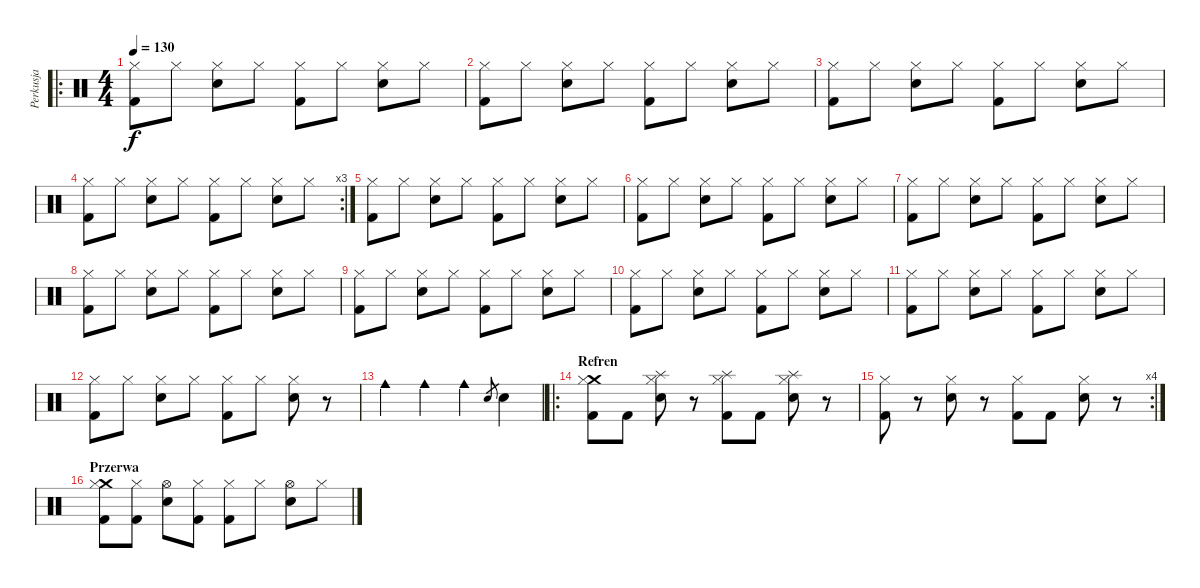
\track ("Perkusja" "Perkusja") {instrument percussion}
\staff {score}
\articulation defaults
\ro
\ts (4 4)
\tempo 130
\clef neutral
\ks c
("Hi-Hat (closed)" "Kick (hit) 2").8{dy f} "Hi-Hat (closed)".8 ("Hi-Hat (closed)" "Electric Snare (hit)").8 "Hi-Hat (closed)".8 ("Hi-Hat (closed)" "Kick (hit) 2").8 "Hi-Hat (closed)".8 ("Hi-Hat (closed)" "Electric Snare (hit)").8 "Hi-Hat (closed)".8 |
("Hi-Hat (closed)" "Kick (hit) 2").8 "Hi-Hat (closed)".8 ("Hi-Hat (closed)" "Electric Snare (hit)").8 "Hi-Hat (closed)".8 ("Hi-Hat (closed)" "Kick (hit) 2").8 "Hi-Hat (closed)".8 ("Hi-Hat (closed)" "Electric Snare (hit)").8 "Hi-Hat (closed)".8 |
("Hi-Hat (closed)" "Kick (hit) 2").8 "Hi-Hat (closed)".8 ("Hi-Hat (closed)" "Electric Snare (hit)").8 "Hi-Hat (closed)".8 ("Hi-Hat (closed)" "Kick (hit) 2").8 "Hi-Hat (closed)".8 ("Hi-Hat (closed)" "Electric Snare (hit)").8 "Hi-Hat (closed)".8 |
\rc 3
("Hi-Hat (closed)" "Kick (hit) 2").8 "Hi-Hat (closed)".8 ("Hi-Hat (closed)" "Electric Snare (hit)").8 "Hi-Hat (closed)".8 ("Hi-Hat (closed)" "Kick (hit) 2").8 "Hi-Hat (closed)".8 ("Hi-Hat (closed)" "Electric Snare (hit)").8 "Hi-Hat (closed)".8 |
("Hi-Hat (closed)" "Kick (hit) 2").8 "Hi-Hat (closed)".8 ("Hi-Hat (closed)" "Electric Snare (hit)").8 "Hi-Hat (closed)".8 ("Hi-Hat (closed)" "Kick (hit) 2").8 "Hi-Hat (closed)".8 ("Hi-Hat (closed)" "Electric Snare (hit)").8 "Hi-Hat (closed)".8 |
("Hi-Hat (closed)" "Kick (hit) 2").8 "Hi-Hat (closed)".8 ("Hi-Hat (closed)" "Electric Snare (hit)").8 "Hi-Hat (closed)".8 ("Hi-Hat (closed)" "Kick (hit) 2").8 "Hi-Hat (closed)".8 ("Hi-Hat (closed)" "Electric Snare (hit)").8 "Hi-Hat (closed)".8 |
("Hi-Hat (closed)" "Kick (hit) 2").8 "Hi-Hat (closed)".8 ("Hi-Hat (closed)" "Electric Snare (hit)").8 "Hi-Hat (closed)".8 ("Hi-Hat (closed)" "Kick (hit) 2").8 "Hi-Hat (closed)".8 ("Hi-Hat (closed)" "Electric Snare (hit)").8 "Hi-Hat (closed)".8 |
("Hi-Hat (closed)" "Kick (hit) 2").8 "Hi-Hat (closed)".8 ("Hi-Hat (closed)" "Electric Snare (hit)").8 "Hi-Hat (closed)".8 ("Hi-Hat (closed)" "Kick (hit) 2").8 "Hi-Hat (closed)".8 ("Hi-Hat (closed)" "Electric Snare (hit)").8 "Hi-Hat (closed)".8 |
("Hi-Hat (closed)" "Kick (hit) 2").8 "Hi-Hat (closed)".8 ("Hi-Hat (closed)" "Electric Snare (hit)").8 "Hi-Hat (closed)".8 ("Hi-Hat (closed)" "Kick (hit) 2").8 "Hi-Hat (closed)".8 ("Hi-Hat (closed)" "Electric Snare (hit)").8 "Hi-Hat (closed)".8 |
("Hi-Hat (closed)" "Kick (hit) 2").8 "Hi-Hat (closed)".8 ("Hi-Hat (closed)" "Electric Snare (hit)").8 "Hi-Hat (closed)".8 ("Hi-Hat (closed)" "Kick (hit) 2").8 "Hi-Hat (closed)".8 ("Hi-Hat (closed)" "Electric Snare (hit)").8 "Hi-Hat (closed)".8 |
("Hi-Hat (closed)" "Kick (hit) 2").8 "Hi-Hat (closed)".8 ("Hi-Hat (closed)" "Electric Snare (hit)").8 "Hi-Hat (closed)".8 ("Hi-Hat (closed)" "Kick (hit) 2").8 "Hi-Hat (closed)".8 ("Hi-Hat (closed)" "Electric Snare (hit)").8 "Hi-Hat (closed)".8 |
("Hi-Hat (closed)" "Kick (hit) 2").8 "Hi-Hat (closed)".8 ("Hi-Hat (closed)" "Electric Snare (hit)").8 "Hi-Hat (closed)".8 ("Hi-Hat (closed)" "Kick (hit) 2").8 "Hi-Hat (closed)".8 ("Hi-Hat (closed)" "Electric Snare (hit)").8 r.8 |
"Cowbell medium (hit)".4 "Cowbell medium (hit)".4 "Cowbell medium (hit)".4 "Electric Snare (hit)".8{gr} "Electric Snare (hit)".4 |
\ro
\section ("" "Refren")
("Crash medium (hit)" "Hi-Hat (closed)" "Kick (hit) 2").8 "Kick (hit) 2".8 ("Splash (hit)" "Hi-Hat (closed)" "Electric Snare (hit)").8 r.8 ("Splash (hit)" "Hi-Hat (closed)" "Kick (hit) 2").8 "Kick (hit) 2".8 ("Splash (hit)" "Hi-Hat (closed)" "Electric Snare (hit)").8 r.8 |
\rc 4
("Hi-Hat (closed)" "Kick (hit) 2").8 r.8 ("Hi-Hat (closed)" "Electric Snare (hit)").8 r.8 ("Hi-Hat (closed)" "Kick (hit) 2").8 "Kick (hit) 2".8 ("Hi-Hat (closed)" "Electric Snare (hit)").8 r.8 |
\section ("" "Przerwa")
("Crash medium (hit)" "Hi-Hat (closed)" "Kick (hit) 2").8 ("Hi-Hat (closed)" "Kick (hit) 2").8 ("Hi-Hat (open)" "Electric Snare (hit)").8 ("Hi-Hat (closed)" "Kick (hit) 2").8 ("Hi-Hat (closed)" "Kick (hit) 2").8 "Hi-Hat (closed)".8 ("Hi-Hat (open)" "Electric Snare (hit)").8 "Hi-Hat (closed)".8
